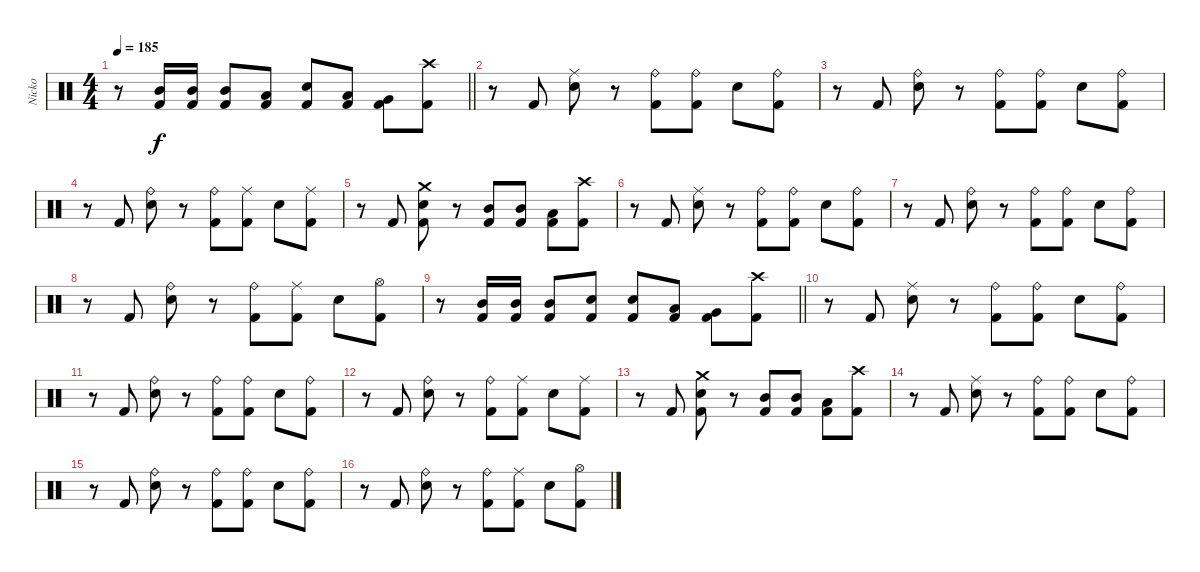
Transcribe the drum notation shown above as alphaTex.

\track ("Nicko" "Nicko") {instrument percussion}
\staff {score}
\articulation defaults
\ts (4 4)
\tempo 185
\clef neutral
\barLineRight lightlight
\ks c
r.8{dy f} ("Mid Tom (hit)" "Kick (hit) 2").16 ("Mid Tom (hit)" "Kick (hit) 2").16 ("Mid Tom (hit)" "Kick (hit) 2").8 ("Low Tom (hit)" "Kick (hit) 2").8 ("Snare (hit) 2" "Kick (hit) 2").8 ("Low Tom (hit)" "Kick (hit) 2").8 ("Very Low Tom (hit)" "Kick (hit) 2").8 ("Crash high (hit)" "Kick (hit) 2").8 |
r.8 "Kick (hit) 2".8 ("Ride (middle)" "Snare (hit) 2").8 r.8 ("Ride (bell)" "Kick (hit) 2").8 ("Ride (bell)" "Kick (hit) 2").8 "Snare (hit) 2".8 ("Ride (bell)" "Kick (hit) 2").8 |
r.8 "Kick (hit) 2".8 ("Ride (bell)" "Snare (hit) 2").8 r.8 ("Ride (bell)" "Kick (hit) 2").8 ("Ride (bell)" "Kick (hit) 2").8 "Snare (hit) 2".8 ("Ride (bell)" "Kick (hit) 2").8 |
r.8 "Kick (hit) 2".8 ("Ride (bell)" "Snare (hit) 2").8 r.8 ("Ride (bell)" "Kick (hit) 2").8 ("Ride (middle)" "Kick (hit) 2").8 "Snare (hit) 2".8 ("Ride (middle)" "Kick (hit) 2").8 |
r.8 "Kick (hit) 2".8 ("Crash medium (hit)" "Snare (hit) 2" "Kick (hit) 2").8 r.8 ("Mid Tom (hit)" "Kick (hit) 2").8 ("Mid Tom (hit)" "Kick (hit) 2").8 ("Low Tom (hit)" "Kick (hit) 2").8 ("Crash high (hit)" "Kick (hit) 2").8 |
r.8 "Kick (hit) 2".8 ("Ride (middle)" "Snare (hit) 2").8 r.8 ("Ride (bell)" "Kick (hit) 2").8 ("Ride (bell)" "Kick (hit) 2").8 "Snare (hit) 2".8 ("Ride (bell)" "Kick (hit) 2").8 |
r.8 "Kick (hit) 2".8 ("Ride (bell)" "Snare (hit) 2").8 r.8 ("Ride (bell)" "Kick (hit) 2").8 ("Ride (bell)" "Kick (hit) 2").8 "Snare (hit) 2".8 ("Ride (bell)" "Kick (hit) 2").8 |
r.8 "Kick (hit) 2".8 ("Ride (bell)" "Snare (hit) 2").8 r.8 ("Ride (bell)" "Kick (hit) 2").8 ("Ride (middle)" "Kick (hit) 2").8 "Snare (hit) 2".8 ("Hi-Hat (open)" "Kick (hit) 2").8 |
\barLineRight lightlight
r.8 ("Mid Tom (hit)" "Kick (hit) 2").16 ("Mid Tom (hit)" "Kick (hit) 2").16 ("Mid Tom (hit)" "Kick (hit) 2").8 ("Snare (hit) 2" "Kick (hit) 2").8 ("Snare (hit) 2" "Kick (hit) 2").8 ("Low Tom (hit)" "Kick (hit) 2").8 ("Very Low Tom (hit)" "Kick (hit) 2").8 ("Crash high (hit)" "Kick (hit) 2").8 |
r.8 "Kick (hit) 2".8 ("Ride (middle)" "Snare (hit) 2").8 r.8 ("Ride (bell)" "Kick (hit) 2").8 ("Ride (bell)" "Kick (hit) 2").8 "Snare (hit) 2".8 ("Ride (bell)" "Kick (hit) 2").8 |
r.8 "Kick (hit) 2".8 ("Ride (bell)" "Snare (hit) 2").8 r.8 ("Ride (bell)" "Kick (hit) 2").8 ("Ride (bell)" "Kick (hit) 2").8 "Snare (hit) 2".8 ("Ride (bell)" "Kick (hit) 2").8 |
r.8 "Kick (hit) 2".8 ("Ride (bell)" "Snare (hit) 2").8 r.8 ("Ride (bell)" "Kick (hit) 2").8 ("Ride (middle)" "Kick (hit) 2").8 "Snare (hit) 2".8 ("Ride (middle)" "Kick (hit) 2").8 |
r.8 "Kick (hit) 2".8 ("Crash medium (hit)" "Snare (hit) 2" "Kick (hit) 2").8 r.8 ("Mid Tom (hit)" "Kick (hit) 2").8 ("Mid Tom (hit)" "Kick (hit) 2").8 ("Low Tom (hit)" "Kick (hit) 2").8 ("Crash high (hit)" "Kick (hit) 2").8 |
r.8 "Kick (hit) 2".8 ("Ride (middle)" "Snare (hit) 2").8 r.8 ("Ride (bell)" "Kick (hit) 2").8 ("Ride (bell)" "Kick (hit) 2").8 "Snare (hit) 2".8 ("Ride (bell)" "Kick (hit) 2").8 |
r.8 "Kick (hit) 2".8 ("Ride (bell)" "Snare (hit) 2").8 r.8 ("Ride (bell)" "Kick (hit) 2").8 ("Ride (bell)" "Kick (hit) 2").8 "Snare (hit) 2".8 ("Ride (bell)" "Kick (hit) 2").8 |
r.8 "Kick (hit) 2".8 ("Ride (bell)" "Snare (hit) 2").8 r.8 ("Ride (bell)" "Kick (hit) 2").8 ("Ride (middle)" "Kick (hit) 2").8 "Snare (hit) 2".8 ("Hi-Hat (open)" "Kick (hit) 2").8
